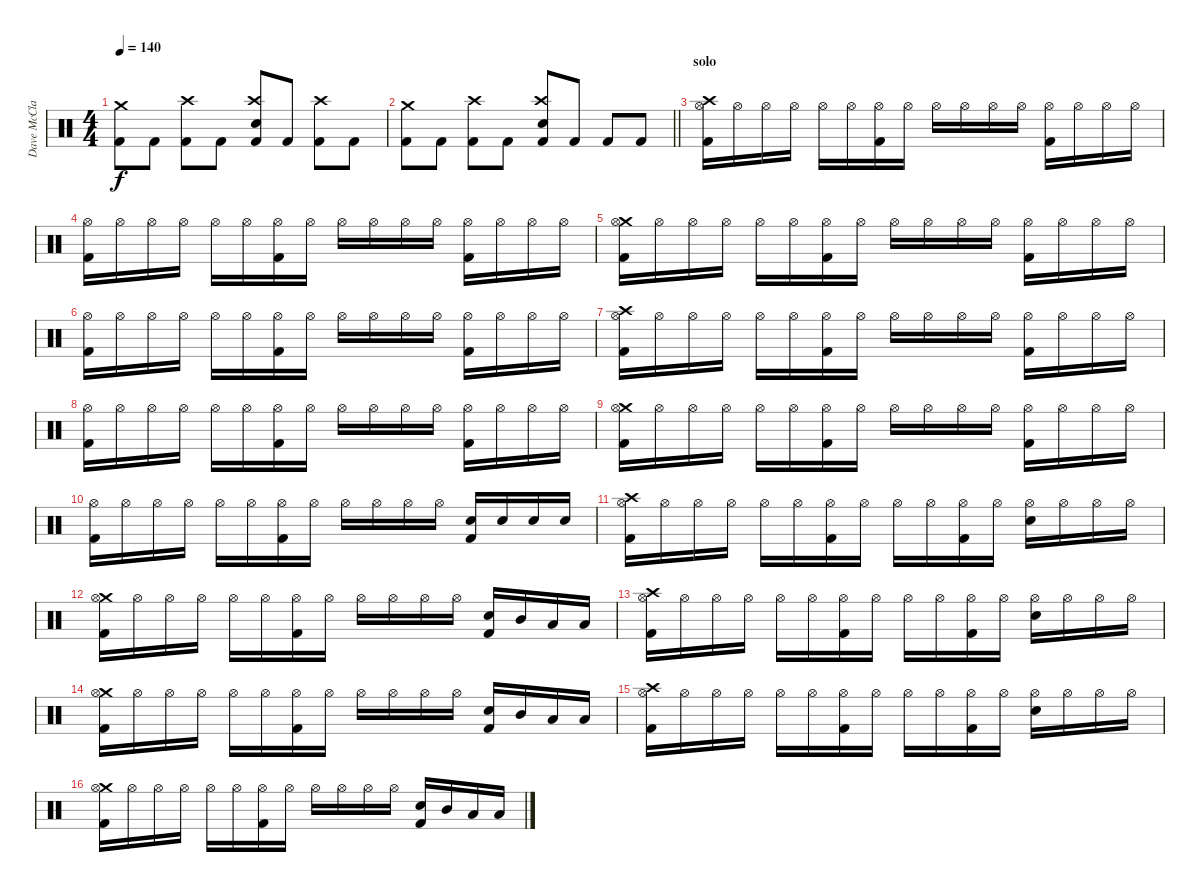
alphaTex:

\track ("Dave McClain" "Dave McCla") {solo instrument percussion}
\staff {score}
\articulation defaults
\ts (4 4)
\tempo 140
\clef neutral
\ks c
("Crash medium (hit)" "Kick (hit) 2").8{dy f} "Kick (hit) 2".8 ("Crash high (hit)" "Kick (hit) 2").8 "Kick (hit) 2".8 ("Crash high (hit)" "Electric Snare (hit)" "Kick (hit) 2").8 "Kick (hit) 2".8 ("Crash high (hit)" "Kick (hit) 2").8 "Kick (hit) 2".8 |
\barLineRight lightlight
("Crash medium (hit)" "Kick (hit) 2").8 "Kick (hit) 2".8 ("Crash high (hit)" "Kick (hit) 2").8 "Kick (hit) 2".8 ("Crash high (hit)" "Electric Snare (hit)" "Kick (hit) 2").8 "Kick (hit) 2".8 "Kick (hit) 2".8 "Kick (hit) 2".8 |
\section ("" "solo")
("Crash high (hit)" "Hi-Hat (open)" "Kick (hit) 2").16 "Hi-Hat (open)".16 "Hi-Hat (open)".16 "Hi-Hat (open)".16 "Hi-Hat (open)".16 "Hi-Hat (open)".16 ("Hi-Hat (open)" "Kick (hit) 2").16 "Hi-Hat (open)".16 "Hi-Hat (open)".16 "Hi-Hat (open)".16 "Hi-Hat (open)".16 "Hi-Hat (open)".16 ("Hi-Hat (open)" "Kick (hit) 2").16 "Hi-Hat (open)".16 "Hi-Hat (open)".16 "Hi-Hat (open)".16 |
("Hi-Hat (open)" "Kick (hit) 2").16 "Hi-Hat (open)".16 "Hi-Hat (open)".16 "Hi-Hat (open)".16 "Hi-Hat (open)".16 "Hi-Hat (open)".16 ("Hi-Hat (open)" "Kick (hit) 2").16 "Hi-Hat (open)".16 "Hi-Hat (open)".16 "Hi-Hat (open)".16 "Hi-Hat (open)".16 "Hi-Hat (open)".16 ("Hi-Hat (open)" "Kick (hit) 2").16 "Hi-Hat (open)".16 "Hi-Hat (open)".16 "Hi-Hat (open)".16 |
("Crash medium (hit)" "Hi-Hat (open)" "Kick (hit) 2").16 "Hi-Hat (open)".16 "Hi-Hat (open)".16 "Hi-Hat (open)".16 "Hi-Hat (open)".16 "Hi-Hat (open)".16 ("Hi-Hat (open)" "Kick (hit) 2").16 "Hi-Hat (open)".16 "Hi-Hat (open)".16 "Hi-Hat (open)".16 "Hi-Hat (open)".16 "Hi-Hat (open)".16 ("Hi-Hat (open)" "Kick (hit) 2").16 "Hi-Hat (open)".16 "Hi-Hat (open)".16 "Hi-Hat (open)".16 |
("Hi-Hat (open)" "Kick (hit) 2").16 "Hi-Hat (open)".16 "Hi-Hat (open)".16 "Hi-Hat (open)".16 "Hi-Hat (open)".16 "Hi-Hat (open)".16 ("Hi-Hat (open)" "Kick (hit) 2").16 "Hi-Hat (open)".16 "Hi-Hat (open)".16 "Hi-Hat (open)".16 "Hi-Hat (open)".16 "Hi-Hat (open)".16 ("Hi-Hat (open)" "Kick (hit) 2").16 "Hi-Hat (open)".16 "Hi-Hat (open)".16 "Hi-Hat (open)".16 |
("Crash high (hit)" "Hi-Hat (open)" "Kick (hit) 2").16 "Hi-Hat (open)".16 "Hi-Hat (open)".16 "Hi-Hat (open)".16 "Hi-Hat (open)".16 "Hi-Hat (open)".16 ("Hi-Hat (open)" "Kick (hit) 2").16 "Hi-Hat (open)".16 "Hi-Hat (open)".16 "Hi-Hat (open)".16 "Hi-Hat (open)".16 "Hi-Hat (open)".16 ("Hi-Hat (open)" "Kick (hit) 2").16 "Hi-Hat (open)".16 "Hi-Hat (open)".16 "Hi-Hat (open)".16 |
("Hi-Hat (open)" "Kick (hit) 2").16 "Hi-Hat (open)".16 "Hi-Hat (open)".16 "Hi-Hat (open)".16 "Hi-Hat (open)".16 "Hi-Hat (open)".16 ("Hi-Hat (open)" "Kick (hit) 2").16 "Hi-Hat (open)".16 "Hi-Hat (open)".16 "Hi-Hat (open)".16 "Hi-Hat (open)".16 "Hi-Hat (open)".16 ("Hi-Hat (open)" "Kick (hit) 2").16 "Hi-Hat (open)".16 "Hi-Hat (open)".16 "Hi-Hat (open)".16 |
("Crash medium (hit)" "Hi-Hat (open)" "Kick (hit) 2").16 "Hi-Hat (open)".16 "Hi-Hat (open)".16 "Hi-Hat (open)".16 "Hi-Hat (open)".16 "Hi-Hat (open)".16 ("Hi-Hat (open)" "Kick (hit) 2").16 "Hi-Hat (open)".16 "Hi-Hat (open)".16 "Hi-Hat (open)".16 "Hi-Hat (open)".16 "Hi-Hat (open)".16 ("Hi-Hat (open)" "Kick (hit) 2").16 "Hi-Hat (open)".16 "Hi-Hat (open)".16 "Hi-Hat (open)".16 |
("Hi-Hat (open)" "Kick (hit) 2").16 "Hi-Hat (open)".16 "Hi-Hat (open)".16 "Hi-Hat (open)".16 "Hi-Hat (open)".16 "Hi-Hat (open)".16 ("Hi-Hat (open)" "Kick (hit) 2").16 "Hi-Hat (open)".16 "Hi-Hat (open)".16 "Hi-Hat (open)".16 "Hi-Hat (open)".16 "Hi-Hat (open)".16 ("Electric Snare (hit)" "Kick (hit) 2").16 "Electric Snare (hit)".16 "Electric Snare (hit)".16 "Electric Snare (hit)".16 |
("Crash high (hit)" "Hi-Hat (open)" "Kick (hit) 2").16 "Hi-Hat (open)".16 "Hi-Hat (open)".16 "Hi-Hat (open)".16 "Hi-Hat (open)".16 "Hi-Hat (open)".16 ("Hi-Hat (open)" "Kick (hit) 2").16 "Hi-Hat (open)".16 "Hi-Hat (open)".16 "Hi-Hat (open)".16 ("Hi-Hat (open)" "Kick (hit) 2").16 "Hi-Hat (open)".16 ("Hi-Hat (open)" "Electric Snare (hit)").16 "Hi-Hat (open)".16 "Hi-Hat (open)".16 "Hi-Hat (open)".16 |
("Crash medium (hit)" "Hi-Hat (open)" "Kick (hit) 2").16 "Hi-Hat (open)".16 "Hi-Hat (open)".16 "Hi-Hat (open)".16 "Hi-Hat (open)".16 "Hi-Hat (open)".16 ("Hi-Hat (open)" "Kick (hit) 2").16 "Hi-Hat (open)".16 "Hi-Hat (open)".16 "Hi-Hat (open)".16 "Hi-Hat (open)".16 "Hi-Hat (open)".16 ("Electric Snare (hit)" "Kick (hit) 2").16 "Mid Tom (hit)".16 "Low Tom (hit)".16 "Low Floor Tom (hit)".16 |
("Crash high (hit)" "Hi-Hat (open)" "Kick (hit) 2").16 "Hi-Hat (open)".16 "Hi-Hat (open)".16 "Hi-Hat (open)".16 "Hi-Hat (open)".16 "Hi-Hat (open)".16 ("Hi-Hat (open)" "Kick (hit) 2").16 "Hi-Hat (open)".16 "Hi-Hat (open)".16 "Hi-Hat (open)".16 ("Hi-Hat (open)" "Kick (hit) 2").16 "Hi-Hat (open)".16 ("Hi-Hat (open)" "Electric Snare (hit)").16 "Hi-Hat (open)".16 "Hi-Hat (open)".16 "Hi-Hat (open)".16 |
("Crash medium (hit)" "Hi-Hat (open)" "Kick (hit) 2").16 "Hi-Hat (open)".16 "Hi-Hat (open)".16 "Hi-Hat (open)".16 "Hi-Hat (open)".16 "Hi-Hat (open)".16 ("Hi-Hat (open)" "Kick (hit) 2").16 "Hi-Hat (open)".16 "Hi-Hat (open)".16 "Hi-Hat (open)".16 "Hi-Hat (open)".16 "Hi-Hat (open)".16 ("Electric Snare (hit)" "Kick (hit) 2").16 "Mid Tom (hit)".16 "Low Tom (hit)".16 "Low Floor Tom (hit)".16 |
("Crash high (hit)" "Hi-Hat (open)" "Kick (hit) 2").16 "Hi-Hat (open)".16 "Hi-Hat (open)".16 "Hi-Hat (open)".16 "Hi-Hat (open)".16 "Hi-Hat (open)".16 ("Hi-Hat (open)" "Kick (hit) 2").16 "Hi-Hat (open)".16 "Hi-Hat (open)".16 "Hi-Hat (open)".16 ("Hi-Hat (open)" "Kick (hit) 2").16 "Hi-Hat (open)".16 ("Hi-Hat (open)" "Electric Snare (hit)").16 "Hi-Hat (open)".16 "Hi-Hat (open)".16 "Hi-Hat (open)".16 |
("Crash medium (hit)" "Hi-Hat (open)" "Kick (hit) 2").16 "Hi-Hat (open)".16 "Hi-Hat (open)".16 "Hi-Hat (open)".16 "Hi-Hat (open)".16 "Hi-Hat (open)".16 ("Hi-Hat (open)" "Kick (hit) 2").16 "Hi-Hat (open)".16 "Hi-Hat (open)".16 "Hi-Hat (open)".16 "Hi-Hat (open)".16 "Hi-Hat (open)".16 ("Electric Snare (hit)" "Kick (hit) 2").16 "Mid Tom (hit)".16 "Low Tom (hit)".16 "Low Floor Tom (hit)".16
